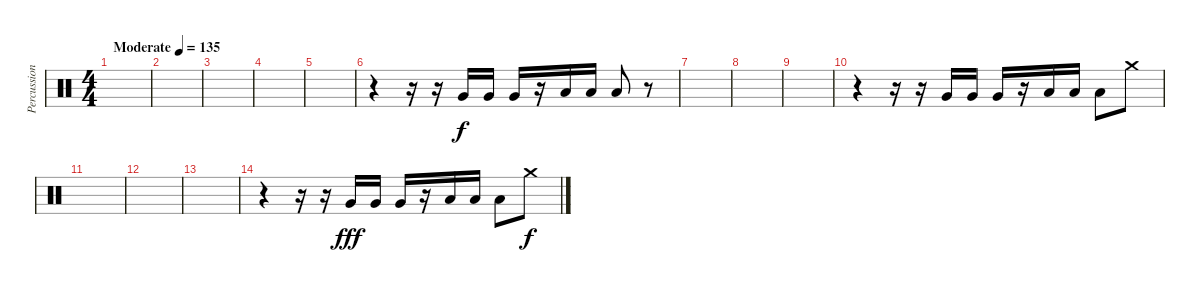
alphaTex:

\track ("Percussion" "Percussion") {instrument percussion}
\staff {score}
\articulation defaults
\ts (4 4)
\tempo (135 "Moderate")
\clef neutral
\ks c
|
|
|
|
|
r.4 r.16 r.16 "Very Low Tom (hit)".16 "Very Low Tom (hit)".16 "Very Low Tom (hit)".16 r.16 "Low Floor Tom (hit)".16 "Low Floor Tom (hit)".16 "Low Floor Tom (hit)".8 r.8 |
|
|
|
r.4 r.16 r.16 "Very Low Tom (hit)".16 "Very Low Tom (hit)".16 "Very Low Tom (hit)".16 r.16 "Low Floor Tom (hit)".16 "Low Floor Tom (hit)".16 "Low Floor Tom (hit)".8 "Crash medium (hit)".8{dy f} |
|
|
|
r.4 r.16 r.16 "Very Low Tom (hit)".16{dy fff} "Very Low Tom (hit)".16 "Very Low Tom (hit)".16 r.16 "Low Floor Tom (hit)".16 "Low Floor Tom (hit)".16 "Low Floor Tom (hit)".8 "Crash medium (hit)".8{dy f}
